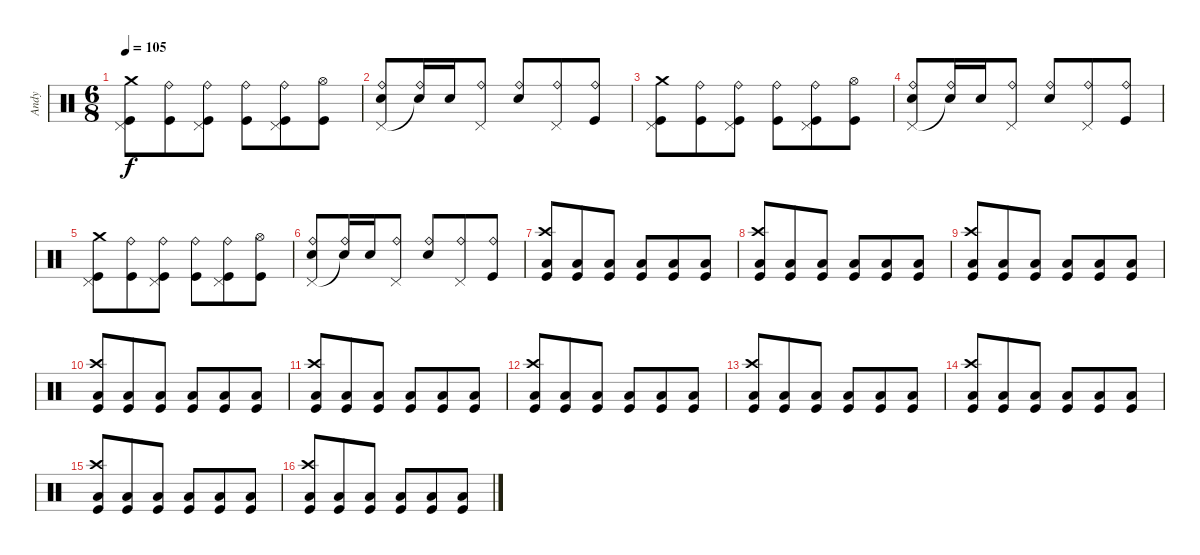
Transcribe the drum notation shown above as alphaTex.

\track ("Andy" "Andy") {instrument percussion}
\staff {score}
\articulation defaults
\ts (6 8)
\tempo 105
\clef neutral
\ks c
("Kick (hit)" "Pedal Hi-Hat (hit)" "Crash medium (hit)").8{dy f} ("Kick (hit)" "Ride (bell)").8 ("Kick (hit)" "Ride (bell)" "Pedal Hi-Hat (hit)").8 ("Kick (hit)" "Ride (bell)").8 ("Kick (hit)" "Ride (bell)" "Pedal Hi-Hat (hit)").8 ("Kick (hit)" "Hi-Hat (open)").8 |
("Snare (hit) 2" "Pedal Hi-Hat (hit)" "Ride (bell)").8 ("Ride (bell)" "Snare (hit) 2"{t}).16 "Snare (hit) 2".16 ("Ride (bell)" "Pedal Hi-Hat (hit)").8 ("Snare (hit) 2" "Ride (bell)").8 ("Ride (bell)" "Pedal Hi-Hat (hit)").8 ("Kick (hit)" "Ride (bell)").8 |
("Kick (hit)" "Pedal Hi-Hat (hit)" "Crash medium (hit)").8 ("Kick (hit)" "Ride (bell)").8 ("Kick (hit)" "Ride (bell)" "Pedal Hi-Hat (hit)").8 ("Kick (hit)" "Ride (bell)").8 ("Kick (hit)" "Ride (bell)" "Pedal Hi-Hat (hit)").8 ("Kick (hit)" "Hi-Hat (open)").8 |
("Snare (hit) 2" "Pedal Hi-Hat (hit)" "Ride (bell)").8 ("Ride (bell)" "Snare (hit) 2"{t}).16 "Snare (hit) 2".16 ("Ride (bell)" "Pedal Hi-Hat (hit)").8 ("Snare (hit) 2" "Ride (bell)").8 ("Ride (bell)" "Pedal Hi-Hat (hit)").8 ("Kick (hit)" "Ride (bell)").8 |
("Kick (hit)" "Pedal Hi-Hat (hit)" "Crash medium (hit)").8 ("Kick (hit)" "Ride (bell)").8 ("Kick (hit)" "Ride (bell)" "Pedal Hi-Hat (hit)").8 ("Kick (hit)" "Ride (bell)").8 ("Kick (hit)" "Ride (bell)" "Pedal Hi-Hat (hit)").8 ("Kick (hit)" "Hi-Hat (open)").8 |
("Snare (hit) 2" "Pedal Hi-Hat (hit)" "Ride (bell)").8 ("Ride (bell)" "Snare (hit) 2"{t}).16 "Snare (hit) 2".16 ("Ride (bell)" "Pedal Hi-Hat (hit)").8 ("Snare (hit) 2" "Ride (bell)").8 ("Ride (bell)" "Pedal Hi-Hat (hit)").8 ("Kick (hit)" "Ride (bell)").8 |
("Crash high (hit)" "Kick (hit)" "Low Floor Tom (hit)").8 ("Low Floor Tom (hit)" "Kick (hit)").8 ("Kick (hit)" "Low Floor Tom (hit)").8 ("Kick (hit)" "Low Floor Tom (hit)").8 ("Kick (hit)" "Low Floor Tom (hit)").8 ("Kick (hit)" "Low Floor Tom (hit)").8 |
("Crash high (hit)" "Kick (hit)" "Low Floor Tom (hit)").8 ("Low Floor Tom (hit)" "Kick (hit)").8 ("Kick (hit)" "Low Floor Tom (hit)").8 ("Kick (hit)" "Low Floor Tom (hit)").8 ("Kick (hit)" "Low Floor Tom (hit)").8 ("Kick (hit)" "Low Floor Tom (hit)").8 |
("Crash high (hit)" "Kick (hit)" "Low Floor Tom (hit)").8 ("Low Floor Tom (hit)" "Kick (hit)").8 ("Kick (hit)" "Low Floor Tom (hit)").8 ("Kick (hit)" "Low Floor Tom (hit)").8 ("Kick (hit)" "Low Floor Tom (hit)").8 ("Kick (hit)" "Low Floor Tom (hit)").8 |
("Crash high (hit)" "Kick (hit)" "Low Floor Tom (hit)").8 ("Low Floor Tom (hit)" "Kick (hit)").8 ("Kick (hit)" "Low Floor Tom (hit)").8 ("Kick (hit)" "Low Floor Tom (hit)").8 ("Kick (hit)" "Low Floor Tom (hit)").8 ("Kick (hit)" "Low Floor Tom (hit)").8 |
("Crash high (hit)" "Kick (hit)" "Low Floor Tom (hit)").8 ("Low Floor Tom (hit)" "Kick (hit)").8 ("Kick (hit)" "Low Floor Tom (hit)").8 ("Kick (hit)" "Low Floor Tom (hit)").8 ("Kick (hit)" "Low Floor Tom (hit)").8 ("Kick (hit)" "Low Floor Tom (hit)").8 |
("Crash high (hit)" "Kick (hit)" "Low Floor Tom (hit)").8 ("Low Floor Tom (hit)" "Kick (hit)").8 ("Kick (hit)" "Low Floor Tom (hit)").8 ("Kick (hit)" "Low Floor Tom (hit)").8 ("Kick (hit)" "Low Floor Tom (hit)").8 ("Kick (hit)" "Low Floor Tom (hit)").8 |
("Crash high (hit)" "Kick (hit)" "Low Floor Tom (hit)").8 ("Low Floor Tom (hit)" "Kick (hit)").8 ("Kick (hit)" "Low Floor Tom (hit)").8 ("Kick (hit)" "Low Floor Tom (hit)").8 ("Kick (hit)" "Low Floor Tom (hit)").8 ("Kick (hit)" "Low Floor Tom (hit)").8 |
("Crash high (hit)" "Kick (hit)" "Low Floor Tom (hit)").8 ("Low Floor Tom (hit)" "Kick (hit)").8 ("Kick (hit)" "Low Floor Tom (hit)").8 ("Kick (hit)" "Low Floor Tom (hit)").8 ("Kick (hit)" "Low Floor Tom (hit)").8 ("Kick (hit)" "Low Floor Tom (hit)").8 |
("Crash high (hit)" "Kick (hit)" "Low Floor Tom (hit)").8 ("Low Floor Tom (hit)" "Kick (hit)").8 ("Kick (hit)" "Low Floor Tom (hit)").8 ("Kick (hit)" "Low Floor Tom (hit)").8 ("Kick (hit)" "Low Floor Tom (hit)").8 ("Kick (hit)" "Low Floor Tom (hit)").8 |
("Crash high (hit)" "Kick (hit)" "Low Floor Tom (hit)").8 ("Low Floor Tom (hit)" "Kick (hit)").8 ("Kick (hit)" "Low Floor Tom (hit)").8 ("Kick (hit)" "Low Floor Tom (hit)").8 ("Kick (hit)" "Low Floor Tom (hit)").8 ("Kick (hit)" "Low Floor Tom (hit)").8
